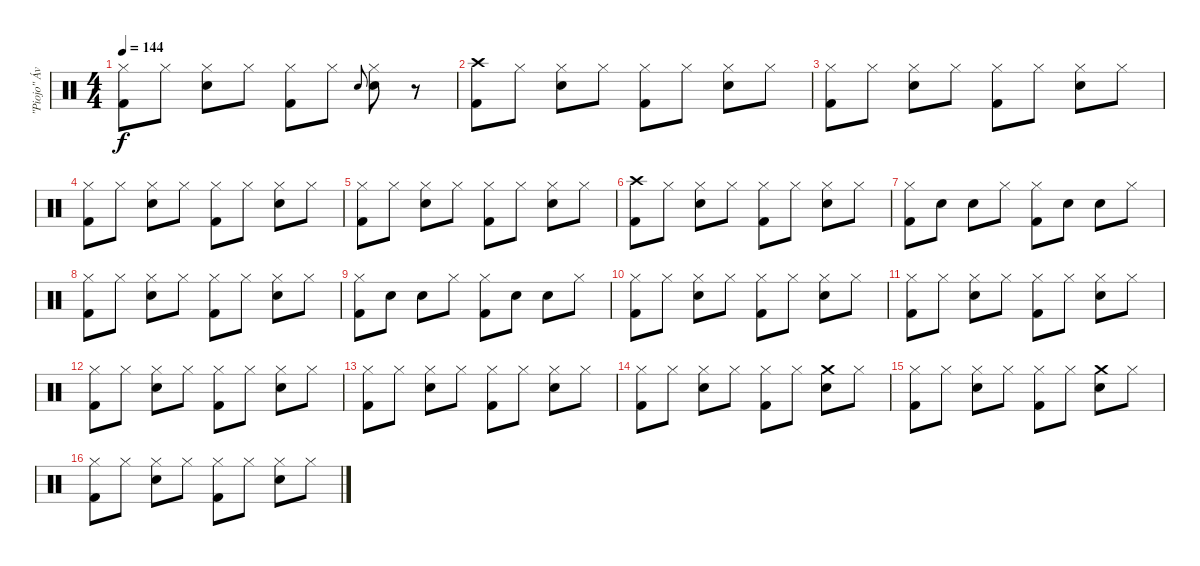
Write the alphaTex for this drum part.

\track ("\"Piojo\" Ávalos" "\"Piojo\" Áv") {instrument percussion}
\staff {score}
\articulation defaults
\ts (4 4)
\tempo 144
\clef neutral
\ks c
("Hi-Hat (closed)" "Kick (hit) 2").8{dy f} "Hi-Hat (closed)".8 ("Hi-Hat (closed)" "Electric Snare (hit)").8 "Hi-Hat (closed)".8 ("Hi-Hat (closed)" "Kick (hit) 2").8 "Hi-Hat (closed)".8 "Electric Snare (hit)".8{gr onbeat} ("Hi-Hat (closed)" "Electric Snare (hit)").8 r.8 |
("Crash high (hit)" "Kick (hit) 2").8 "Hi-Hat (closed)".8 ("Hi-Hat (closed)" "Electric Snare (hit)").8 "Hi-Hat (closed)".8 ("Hi-Hat (closed)" "Kick (hit) 2").8 "Hi-Hat (closed)".8 ("Hi-Hat (closed)" "Electric Snare (hit)").8 "Hi-Hat (closed)".8 |
("Hi-Hat (closed)" "Kick (hit) 2").8 "Hi-Hat (closed)".8 ("Hi-Hat (closed)" "Electric Snare (hit)").8 "Hi-Hat (closed)".8 ("Hi-Hat (closed)" "Kick (hit) 2").8 "Hi-Hat (closed)".8 ("Hi-Hat (closed)" "Electric Snare (hit)").8 "Hi-Hat (closed)".8 |
("Hi-Hat (closed)" "Kick (hit) 2").8 "Hi-Hat (closed)".8 ("Hi-Hat (closed)" "Electric Snare (hit)").8 "Hi-Hat (closed)".8 ("Hi-Hat (closed)" "Kick (hit) 2").8 "Hi-Hat (closed)".8 ("Hi-Hat (closed)" "Electric Snare (hit)").8 "Hi-Hat (closed)".8 |
("Hi-Hat (closed)" "Kick (hit) 2").8 "Hi-Hat (closed)".8 ("Hi-Hat (closed)" "Electric Snare (hit)").8 "Hi-Hat (closed)".8 ("Hi-Hat (closed)" "Kick (hit) 2").8 "Hi-Hat (closed)".8 ("Hi-Hat (closed)" "Electric Snare (hit)").8 "Hi-Hat (closed)".8 |
("Crash high (hit)" "Kick (hit) 2").8 "Hi-Hat (closed)".8 ("Hi-Hat (closed)" "Electric Snare (hit)").8 "Hi-Hat (closed)".8 ("Hi-Hat (closed)" "Kick (hit) 2").8 "Hi-Hat (closed)".8 ("Hi-Hat (closed)" "Electric Snare (hit)").8 "Hi-Hat (closed)".8 |
("Hi-Hat (closed)" "Kick (hit) 2").8 "Electric Snare (hit)".8 "Electric Snare (hit)".8 "Hi-Hat (closed)".8 ("Hi-Hat (closed)" "Kick (hit) 2").8 "Electric Snare (hit)".8 "Electric Snare (hit)".8 "Hi-Hat (closed)".8 |
("Hi-Hat (closed)" "Kick (hit) 2").8 "Hi-Hat (closed)".8 ("Hi-Hat (closed)" "Electric Snare (hit)").8 "Hi-Hat (closed)".8 ("Hi-Hat (closed)" "Kick (hit) 2").8 "Hi-Hat (closed)".8 ("Hi-Hat (closed)" "Electric Snare (hit)").8 "Hi-Hat (closed)".8 |
("Hi-Hat (closed)" "Kick (hit) 2").8 "Electric Snare (hit)".8 "Electric Snare (hit)".8 "Hi-Hat (closed)".8 ("Hi-Hat (closed)" "Kick (hit) 2").8 "Electric Snare (hit)".8 "Electric Snare (hit)".8 "Hi-Hat (closed)".8 |
("Hi-Hat (closed)" "Kick (hit) 2").8 "Hi-Hat (closed)".8 ("Hi-Hat (closed)" "Electric Snare (hit)").8 "Hi-Hat (closed)".8 ("Hi-Hat (closed)" "Kick (hit) 2").8 "Hi-Hat (closed)".8 ("Hi-Hat (closed)" "Electric Snare (hit)").8 "Hi-Hat (closed)".8 |
("Hi-Hat (closed)" "Kick (hit) 2").8 "Hi-Hat (closed)".8 ("Hi-Hat (closed)" "Electric Snare (hit)").8 "Hi-Hat (closed)".8 ("Hi-Hat (closed)" "Kick (hit) 2").8 "Hi-Hat (closed)".8 ("Hi-Hat (closed)" "Electric Snare (hit)").8 "Hi-Hat (closed)".8 |
("Hi-Hat (closed)" "Kick (hit) 2").8 "Hi-Hat (closed)".8 ("Hi-Hat (closed)" "Electric Snare (hit)").8 "Hi-Hat (closed)".8 ("Hi-Hat (closed)" "Kick (hit) 2").8 "Hi-Hat (closed)".8 ("Hi-Hat (closed)" "Electric Snare (hit)").8 "Hi-Hat (closed)".8 |
("Hi-Hat (closed)" "Kick (hit) 2").8 "Hi-Hat (closed)".8 ("Hi-Hat (closed)" "Electric Snare (hit)").8 "Hi-Hat (closed)".8 ("Hi-Hat (closed)" "Kick (hit) 2").8 "Hi-Hat (closed)".8 ("Hi-Hat (closed)" "Electric Snare (hit)").8 "Hi-Hat (closed)".8 |
("Hi-Hat (closed)" "Kick (hit) 2").8 "Hi-Hat (closed)".8 ("Hi-Hat (closed)" "Electric Snare (hit)").8 "Hi-Hat (closed)".8 ("Hi-Hat (closed)" "Kick (hit) 2").8 "Hi-Hat (closed)".8 ("Crash medium (hit)" "Electric Snare (hit)").8 "Hi-Hat (closed)".8 |
("Hi-Hat (closed)" "Kick (hit) 2").8 "Hi-Hat (closed)".8 ("Hi-Hat (closed)" "Electric Snare (hit)").8 "Hi-Hat (closed)".8 ("Hi-Hat (closed)" "Kick (hit) 2").8 "Hi-Hat (closed)".8 ("Crash medium (hit)" "Electric Snare (hit)").8 "Hi-Hat (closed)".8 |
("Hi-Hat (closed)" "Kick (hit) 2").8 "Hi-Hat (closed)".8 ("Hi-Hat (closed)" "Electric Snare (hit)").8 "Hi-Hat (closed)".8 ("Hi-Hat (closed)" "Kick (hit) 2").8 "Hi-Hat (closed)".8 ("Hi-Hat (closed)" "Electric Snare (hit)").8 "Hi-Hat (closed)".8
